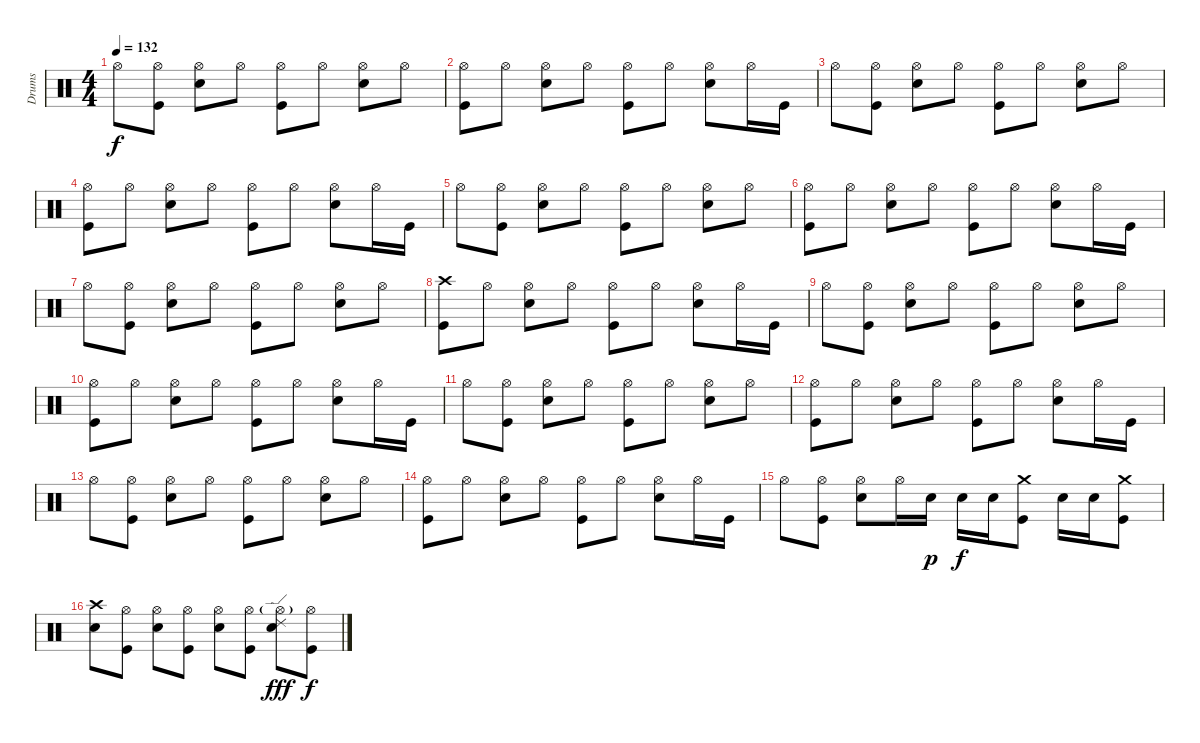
\track ("Drums" "Drums") {instrument percussion}
\staff {score}
\articulation defaults
\ts (4 4)
\tempo 132
\clef neutral
\ks c "Hi-Hat (open)".8{dy f}
("Hi-Hat (open)" "Kick (hit)").8 ("Hi-Hat (open)" "Snare (hit) 2").8 "Hi-Hat (open)".8 ("Hi-Hat (open)" "Kick (hit)").8 "Hi-Hat (open)".8 ("Hi-Hat (open)" "Snare (hit) 2").8 "Hi-Hat (open)".8 |
("Hi-Hat (open)" "Kick (hit)").8 "Hi-Hat (open)".8 ("Hi-Hat (open)" "Snare (hit) 2").8 "Hi-Hat (open)".8 ("Hi-Hat (open)" "Kick (hit)").8 "Hi-Hat (open)".8 ("Hi-Hat (open)" "Snare (hit) 2").8 "Hi-Hat (open)".16 "Kick (hit)".16 |
"Hi-Hat (open)".8 ("Hi-Hat (open)" "Kick (hit)").8 ("Hi-Hat (open)" "Snare (hit) 2").8 "Hi-Hat (open)".8 ("Hi-Hat (open)" "Kick (hit)").8 "Hi-Hat (open)".8 ("Hi-Hat (open)" "Snare (hit) 2").8 "Hi-Hat (open)".8 |
("Hi-Hat (open)" "Kick (hit)").8 "Hi-Hat (open)".8 ("Hi-Hat (open)" "Snare (hit) 2").8 "Hi-Hat (open)".8 ("Hi-Hat (open)" "Kick (hit)").8 "Hi-Hat (open)".8 ("Hi-Hat (open)" "Snare (hit) 2").8 "Hi-Hat (open)".16 "Kick (hit)".16 |
"Hi-Hat (open)".8 ("Hi-Hat (open)" "Kick (hit)").8 ("Hi-Hat (open)" "Snare (hit) 2").8 "Hi-Hat (open)".8 ("Hi-Hat (open)" "Kick (hit)").8 "Hi-Hat (open)".8 ("Hi-Hat (open)" "Snare (hit) 2").8 "Hi-Hat (open)".8 |
("Hi-Hat (open)" "Kick (hit)").8 "Hi-Hat (open)".8 ("Hi-Hat (open)" "Snare (hit) 2").8 "Hi-Hat (open)".8 ("Hi-Hat (open)" "Kick (hit)").8 "Hi-Hat (open)".8 ("Hi-Hat (open)" "Snare (hit) 2").8 "Hi-Hat (open)".16 "Kick (hit)".16 |
"Hi-Hat (open)".8 ("Hi-Hat (open)" "Kick (hit)").8 ("Hi-Hat (open)" "Snare (hit) 2").8 "Hi-Hat (open)".8 ("Hi-Hat (open)" "Kick (hit)").8 "Hi-Hat (open)".8 ("Hi-Hat (open)" "Snare (hit) 2").8 "Hi-Hat (open)".8 |
("Crash high (hit)" "Kick (hit)").8 "Hi-Hat (open)".8 ("Hi-Hat (open)" "Snare (hit) 2").8 "Hi-Hat (open)".8 ("Hi-Hat (open)" "Kick (hit)").8 "Hi-Hat (open)".8 ("Hi-Hat (open)" "Snare (hit) 2").8 "Hi-Hat (open)".16 "Kick (hit)".16 |
"Hi-Hat (open)".8 ("Hi-Hat (open)" "Kick (hit)").8 ("Hi-Hat (open)" "Snare (hit) 2").8 "Hi-Hat (open)".8 ("Hi-Hat (open)" "Kick (hit)").8 "Hi-Hat (open)".8 ("Hi-Hat (open)" "Snare (hit) 2").8 "Hi-Hat (open)".8 |
("Hi-Hat (open)" "Kick (hit)").8 "Hi-Hat (open)".8 ("Hi-Hat (open)" "Snare (hit) 2").8 "Hi-Hat (open)".8 ("Hi-Hat (open)" "Kick (hit)").8 "Hi-Hat (open)".8 ("Hi-Hat (open)" "Snare (hit) 2").8 "Hi-Hat (open)".16 "Kick (hit)".16 |
"Hi-Hat (open)".8 ("Hi-Hat (open)" "Kick (hit)").8 ("Hi-Hat (open)" "Snare (hit) 2").8 "Hi-Hat (open)".8 ("Hi-Hat (open)" "Kick (hit)").8 "Hi-Hat (open)".8 ("Hi-Hat (open)" "Snare (hit) 2").8 "Hi-Hat (open)".8 |
("Hi-Hat (open)" "Kick (hit)").8 "Hi-Hat (open)".8 ("Hi-Hat (open)" "Snare (hit) 2").8 "Hi-Hat (open)".8 ("Hi-Hat (open)" "Kick (hit)").8 "Hi-Hat (open)".8 ("Hi-Hat (open)" "Snare (hit) 2").8 "Hi-Hat (open)".16 "Kick (hit)".16 |
"Hi-Hat (open)".8 ("Hi-Hat (open)" "Kick (hit)").8 ("Hi-Hat (open)" "Snare (hit) 2").8 "Hi-Hat (open)".8 ("Hi-Hat (open)" "Kick (hit)").8 "Hi-Hat (open)".8 ("Hi-Hat (open)" "Snare (hit) 2").8 "Hi-Hat (open)".8 |
("Hi-Hat (open)" "Kick (hit)").8 "Hi-Hat (open)".8 ("Hi-Hat (open)" "Snare (hit) 2").8 "Hi-Hat (open)".8 ("Hi-Hat (open)" "Kick (hit)").8 "Hi-Hat (open)".8 ("Hi-Hat (open)" "Snare (hit) 2").8 "Hi-Hat (open)".16 "Kick (hit)".16 |
"Hi-Hat (open)".8 ("Hi-Hat (open)" "Kick (hit)").8 ("Hi-Hat (open)" "Snare (hit) 2").8 "Hi-Hat (open)".16 "Snare (hit) 2".16{dy p} "Snare (hit) 2".16{dy f} "Snare (hit) 2".16 ("Crash medium (hit)" "Kick (hit)").8 "Snare (hit) 2".16 "Snare (hit) 2".16 ("Crash medium (hit)" "Kick (hit)").8 |
("Crash high (hit)" "Snare (hit) 2").8 ("Hi-Hat (open)" "Kick (hit)").8 ("Hi-Hat (open)" "Snare (hit) 2").8 ("Hi-Hat (open)" "Kick (hit)").8 ("Hi-Hat (open)" "Snare (hit) 2").8 ("Hi-Hat (open)" "Kick (hit)").8 ("Hi-Hat (open)"{g} "Ride (edge) 2" "Snare (hit) 2").8{dy fff} ("Hi-Hat (open)" "Kick (hit)").8{dy f}
